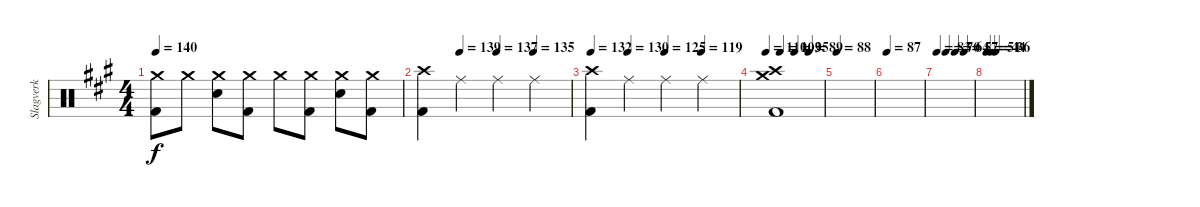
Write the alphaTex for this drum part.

\track ("Slagverk" "Slagverk") {instrument percussion}
\staff {score}
\articulation defaults
\ts (4 4)
\tempo 140
\clef neutral
\ks a
("Crash medium (hit)" "Kick (hit) 2").8{dy f} "Crash medium (hit)".8 ("Crash medium (hit)" "Electric Snare (hit)").8 ("Crash medium (hit)" "Kick (hit) 2").8 "Crash medium (hit)".8 ("Crash medium (hit)" "Kick (hit) 2").8 ("Crash medium (hit)" "Electric Snare (hit)").8 ("Crash medium (hit)" "Kick (hit) 2").8 |
\tempo (139 0.25)
\tempo (137 0.5)
\tempo (135 0.75)
("Crash high (hit)" "Kick (hit) 2").4 "Ride (middle)".4 "Ride (middle)".4 "Ride (middle)".4 |
\tempo 132
\tempo (130 0.25)
\tempo (125 0.5)
\tempo (119 0.75)
("Crash high (hit)" "Kick (hit) 2").4 "Ride (middle)".4 "Ride (middle)".4 "Ride (middle)".4 |
\tempo 110
\tempo (103 0.25)
\tempo (95 0.5)
\tempo (89 0.75)
("Crash high (hit)" "Crash medium (hit)" "Kick (hit) 2").1 |
\tempo 88
|
\tempo 87
|
\tempo 83
\tempo (70 0.25)
\tempo (64 0.5)
\tempo (57 0.75)
|
\tempo 51
\tempo (44 0.125)
\tempo (36 0.25)
